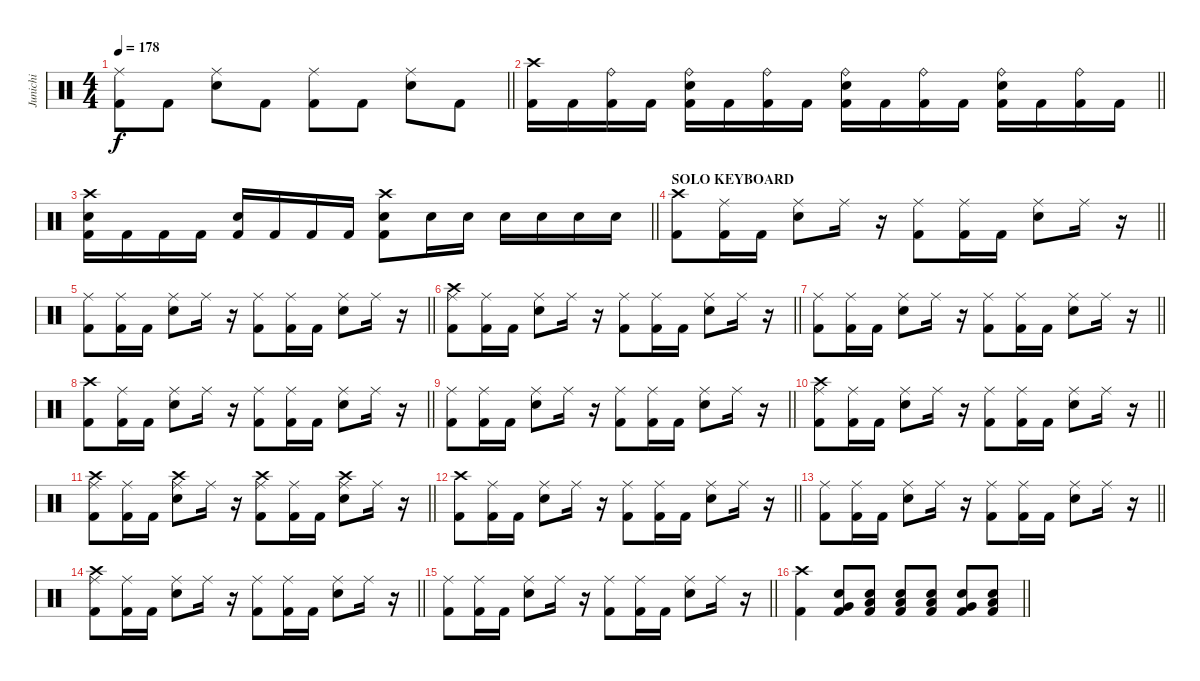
\track ("Junichi" "Junichi") {instrument percussion}
\staff {score}
\articulation defaults
\ts (4 4)
\tempo 178
\clef neutral
\barLineRight lightlight
\ks c
("Ride (middle)" "Kick (hit) 2").8{dy f} "Kick (hit) 2".8 ("Ride (middle)" "Snare (hit) 2").8 "Kick (hit) 2".8 ("Ride (middle)" "Kick (hit) 2").8 "Kick (hit) 2".8 ("Ride (middle)" "Snare (hit) 2").8 "Kick (hit) 2".8 |
\barLineRight lightlight
("Crash high (hit)" "Kick (hit) 2").16 "Kick (hit) 2".16 ("Ride (bell)" "Kick (hit) 2").16 "Kick (hit) 2".16 ("Ride (bell)" "Snare (hit) 2" "Kick (hit) 2").16 "Kick (hit) 2".16 ("Ride (bell)" "Kick (hit) 2").16 "Kick (hit) 2".16 ("Ride (bell)" "Snare (hit) 2" "Kick (hit) 2").16 "Kick (hit) 2".16 ("Ride (bell)" "Kick (hit) 2").16 "Kick (hit) 2".16 ("Ride (bell)" "Snare (hit) 2" "Kick (hit) 2").16 "Kick (hit) 2".16 ("Ride (bell)" "Kick (hit) 2").16 "Kick (hit) 2".16 |
\barLineRight lightlight
("Crash high (hit)" "Snare (hit) 2" "Kick (hit) 2").16 "Kick (hit) 2".16 "Kick (hit) 2".16 "Kick (hit) 2".16 ("Snare (hit) 2" "Kick (hit) 2").16 "Kick (hit) 2".16 "Kick (hit) 2".16 "Kick (hit) 2".16 ("Crash high (hit)" "Snare (hit) 2" "Kick (hit) 2").8 "Snare (hit) 2".16 "Snare (hit) 2".16 "Snare (hit) 2".16 "Snare (hit) 2".16 "Snare (hit) 2".16 "Snare (hit) 2".16 |
\section ("" "SOLO KEYBOARD")
\barLineRight lightlight
("Crash high (hit)" "Kick (hit) 2").8 ("Ride (middle)" "Kick (hit) 2").16 "Kick (hit) 2".16 ("Ride (middle)" "Snare (hit) 2").8 "Ride (middle)".16 r.16 ("Ride (middle)" "Kick (hit) 2").8 ("Ride (middle)" "Kick (hit) 2").16 "Kick (hit) 2".16 ("Ride (middle)" "Snare (hit) 2").8 "Ride (middle)".16 r.16 |
\barLineRight lightlight
("Ride (middle)" "Kick (hit) 2").8 ("Ride (middle)" "Kick (hit) 2").16 "Kick (hit) 2".16 ("Ride (middle)" "Snare (hit) 2").8 "Ride (middle)".16 r.16 ("Ride (middle)" "Kick (hit) 2").8 ("Ride (middle)" "Kick (hit) 2").16 "Kick (hit) 2".16 ("Ride (middle)" "Snare (hit) 2").8 "Ride (middle)".16 r.16 |
\barLineRight lightlight
("Crash high (hit)" "Ride (middle)" "Kick (hit) 2").8 ("Ride (middle)" "Kick (hit) 2").16 "Kick (hit) 2".16 ("Ride (middle)" "Snare (hit) 2").8 "Ride (middle)".16 r.16 ("Ride (middle)" "Kick (hit) 2").8 ("Ride (middle)" "Kick (hit) 2").16 "Kick (hit) 2".16 ("Ride (middle)" "Snare (hit) 2").8 "Ride (middle)".16 r.16 |
\barLineRight lightlight
("Ride (middle)" "Kick (hit) 2").8 ("Ride (middle)" "Kick (hit) 2").16 "Kick (hit) 2".16 ("Ride (middle)" "Snare (hit) 2").8 "Ride (middle)".16 r.16 ("Ride (middle)" "Kick (hit) 2").8 ("Ride (middle)" "Kick (hit) 2").16 "Kick (hit) 2".16 ("Ride (middle)" "Snare (hit) 2").8 "Ride (middle)".16 r.16 |
\barLineRight lightlight
("Crash high (hit)" "Kick (hit) 2").8 ("Ride (middle)" "Kick (hit) 2").16 "Kick (hit) 2".16 ("Ride (middle)" "Snare (hit) 2").8 "Ride (middle)".16 r.16 ("Ride (middle)" "Kick (hit) 2").8 ("Ride (middle)" "Kick (hit) 2").16 "Kick (hit) 2".16 ("Ride (middle)" "Snare (hit) 2").8 "Ride (middle)".16 r.16 |
\barLineRight lightlight
("Ride (middle)" "Kick (hit) 2").8 ("Ride (middle)" "Kick (hit) 2").16 "Kick (hit) 2".16 ("Ride (middle)" "Snare (hit) 2").8 "Ride (middle)".16 r.16 ("Ride (middle)" "Kick (hit) 2").8 ("Ride (middle)" "Kick (hit) 2").16 "Kick (hit) 2".16 ("Ride (middle)" "Snare (hit) 2").8 "Ride (middle)".16 r.16 |
\barLineRight lightlight
("Crash high (hit)" "Ride (middle)" "Kick (hit) 2").8 ("Ride (middle)" "Kick (hit) 2").16 "Kick (hit) 2".16 ("Ride (middle)" "Snare (hit) 2").8 "Ride (middle)".16 r.16 ("Ride (middle)" "Kick (hit) 2").8 ("Ride (middle)" "Kick (hit) 2").16 "Kick (hit) 2".16 ("Ride (middle)" "Snare (hit) 2").8 "Ride (middle)".16 r.16 |
\barLineRight lightlight
("Crash high (hit)" "Ride (middle)" "Kick (hit) 2").8 ("Ride (middle)" "Kick (hit) 2").16 "Kick (hit) 2".16 ("Crash high (hit)" "Ride (middle)" "Snare (hit) 2").8 "Ride (middle)".16 r.16 ("Crash high (hit)" "Ride (middle)" "Kick (hit) 2").8 ("Ride (middle)" "Kick (hit) 2").16 "Kick (hit) 2".16 ("Crash high (hit)" "Ride (middle)" "Snare (hit) 2").8 "Ride (middle)".16 r.16 |
\barLineRight lightlight
("Crash high (hit)" "Kick (hit) 2").8 ("Ride (middle)" "Kick (hit) 2").16 "Kick (hit) 2".16 ("Ride (middle)" "Snare (hit) 2").8 "Ride (middle)".16 r.16 ("Ride (middle)" "Kick (hit) 2").8 ("Ride (middle)" "Kick (hit) 2").16 "Kick (hit) 2".16 ("Ride (middle)" "Snare (hit) 2").8 "Ride (middle)".16 r.16 |
\barLineRight lightlight
("Ride (middle)" "Kick (hit) 2").8 ("Ride (middle)" "Kick (hit) 2").16 "Kick (hit) 2".16 ("Ride (middle)" "Snare (hit) 2").8 "Ride (middle)".16 r.16 ("Ride (middle)" "Kick (hit) 2").8 ("Ride (middle)" "Kick (hit) 2").16 "Kick (hit) 2".16 ("Ride (middle)" "Snare (hit) 2").8 "Ride (middle)".16 r.16 |
\barLineRight lightlight
("Crash high (hit)" "Ride (middle)" "Kick (hit) 2").8 ("Ride (middle)" "Kick (hit) 2").16 "Kick (hit) 2".16 ("Ride (middle)" "Snare (hit) 2").8 "Ride (middle)".16 r.16 ("Ride (middle)" "Kick (hit) 2").8 ("Ride (middle)" "Kick (hit) 2").16 "Kick (hit) 2".16 ("Ride (middle)" "Snare (hit) 2").8 "Ride (middle)".16 r.16 |
\barLineRight lightlight
("Ride (middle)" "Kick (hit) 2").8 ("Ride (middle)" "Kick (hit) 2").16 "Kick (hit) 2".16 ("Ride (middle)" "Snare (hit) 2").8 "Ride (middle)".16 r.16 ("Ride (middle)" "Kick (hit) 2").8 ("Ride (middle)" "Kick (hit) 2").16 "Kick (hit) 2".16 ("Ride (middle)" "Snare (hit) 2").8 "Ride (middle)".16 r.16 |
\barLineRight lightlight
("Crash high (hit)" "Kick (hit) 2").4 ("Very Low Tom (hit)" "Snare (hit) 2" "Kick (hit) 2").8 ("Low Tom (hit)" "Snare (hit) 2" "Kick (hit) 2").8 ("Low Tom (hit)" "Snare (hit) 2" "Kick (hit) 2").8 ("Low Tom (hit)" "Snare (hit) 2" "Kick (hit) 2").8 ("Very Low Tom (hit)" "Snare (hit) 2" "Kick (hit) 2").8 ("Low Tom (hit)" "Snare (hit) 2" "Kick (hit) 2").8
